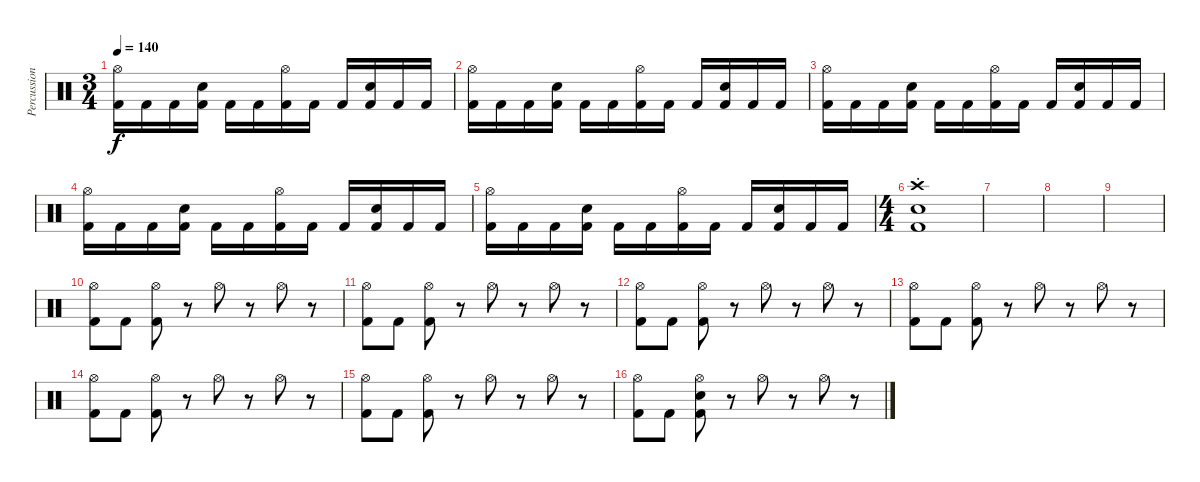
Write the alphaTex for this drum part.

\track ("Percussion" "Percussion") {instrument percussion}
\staff {score}
\articulation defaults
\ts (3 4)
\tempo 140
\clef neutral
\ks c
("Hi-Hat (open)" "Kick (hit) 2").16{dy f} "Kick (hit) 2".16 "Kick (hit) 2".16 ("Electric Snare (hit)" "Kick (hit) 2").16 "Kick (hit) 2".16 "Kick (hit) 2".16 ("Hi-Hat (open)" "Kick (hit) 2").16 "Kick (hit) 2".16 "Kick (hit) 2".16 ("Electric Snare (hit)" "Kick (hit) 2").16 "Kick (hit) 2".16 "Kick (hit) 2".16 |
("Hi-Hat (open)" "Kick (hit) 2").16 "Kick (hit) 2".16 "Kick (hit) 2".16 ("Electric Snare (hit)" "Kick (hit) 2").16 "Kick (hit) 2".16 "Kick (hit) 2".16 ("Hi-Hat (open)" "Kick (hit) 2").16 "Kick (hit) 2".16 "Kick (hit) 2".16 ("Electric Snare (hit)" "Kick (hit) 2").16 "Kick (hit) 2".16 "Kick (hit) 2".16 |
("Hi-Hat (open)" "Kick (hit) 2").16 "Kick (hit) 2".16 "Kick (hit) 2".16 ("Electric Snare (hit)" "Kick (hit) 2").16 "Kick (hit) 2".16 "Kick (hit) 2".16 ("Hi-Hat (open)" "Kick (hit) 2").16 "Kick (hit) 2".16 "Kick (hit) 2".16 ("Electric Snare (hit)" "Kick (hit) 2").16 "Kick (hit) 2".16 "Kick (hit) 2".16 |
("Hi-Hat (open)" "Kick (hit) 2").16 "Kick (hit) 2".16 "Kick (hit) 2".16 ("Electric Snare (hit)" "Kick (hit) 2").16 "Kick (hit) 2".16 "Kick (hit) 2".16 ("Hi-Hat (open)" "Kick (hit) 2").16 "Kick (hit) 2".16 "Kick (hit) 2".16 ("Electric Snare (hit)" "Kick (hit) 2").16 "Kick (hit) 2".16 "Kick (hit) 2".16 |
("Hi-Hat (open)" "Kick (hit) 2").16 "Kick (hit) 2".16 "Kick (hit) 2".16 ("Electric Snare (hit)" "Kick (hit) 2").16 "Kick (hit) 2".16 "Kick (hit) 2".16 ("Hi-Hat (open)" "Kick (hit) 2").16 "Kick (hit) 2".16 "Kick (hit) 2".16 ("Electric Snare (hit)" "Kick (hit) 2").16 "Kick (hit) 2".16 "Kick (hit) 2".16 |
\ts (4 4)
("Crash high (hit)"{st} "Electric Snare (hit)"{st} "Kick (hit) 2"{st}).1 |
|
|
|
("Hi-Hat (open)" "Kick (hit) 2").8 "Kick (hit) 2".8 ("Hi-Hat (open)" "Kick (hit) 2").8 r.8 "Hi-Hat (open)".8 r.8 "Hi-Hat (open)".8 r.8 |
("Hi-Hat (open)" "Kick (hit) 2").8 "Kick (hit) 2".8 ("Hi-Hat (open)" "Kick (hit) 2").8 r.8 "Hi-Hat (open)".8 r.8 "Hi-Hat (open)".8 r.8 |
("Hi-Hat (open)" "Kick (hit) 2").8 "Kick (hit) 2".8 ("Hi-Hat (open)" "Kick (hit) 2").8 r.8 "Hi-Hat (open)".8 r.8 "Hi-Hat (open)".8 r.8 |
("Hi-Hat (open)" "Kick (hit) 2").8 "Kick (hit) 2".8 ("Hi-Hat (open)" "Kick (hit) 2").8 r.8 "Hi-Hat (open)".8 r.8 "Hi-Hat (open)".8 r.8 |
("Hi-Hat (open)" "Kick (hit) 2").8 "Kick (hit) 2".8 ("Hi-Hat (open)" "Kick (hit) 2").8 r.8 "Hi-Hat (open)".8 r.8 "Hi-Hat (open)".8 r.8 |
("Hi-Hat (open)" "Kick (hit) 2").8 "Kick (hit) 2".8 ("Hi-Hat (open)" "Kick (hit) 2").8 r.8 "Hi-Hat (open)".8 r.8 "Hi-Hat (open)".8 r.8 |
("Hi-Hat (open)" "Kick (hit) 2").8 "Kick (hit) 2".8 ("Hi-Hat (open)" "Electric Snare (hit)" "Kick (hit) 2").8 r.8 "Hi-Hat (open)".8 r.8 "Hi-Hat (open)".8 r.8
